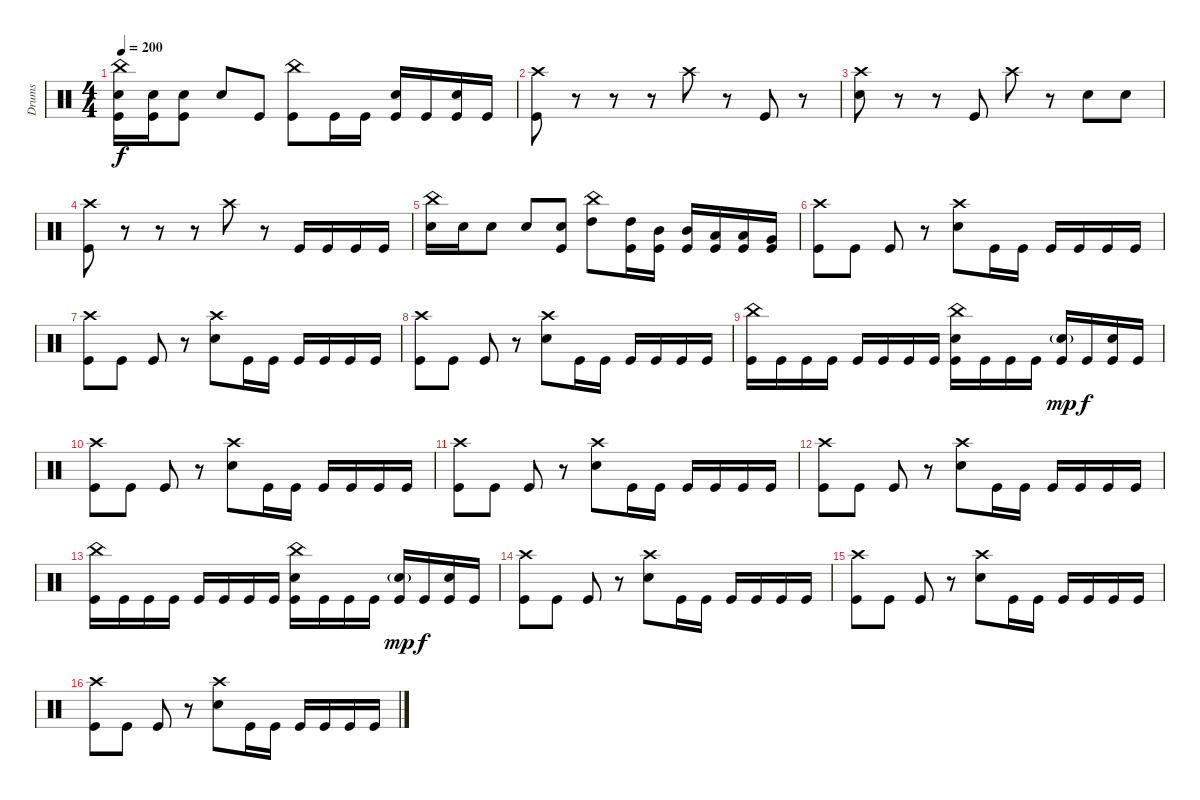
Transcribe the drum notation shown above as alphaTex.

\track ("Drums" "Drums") {instrument percussion}
\staff {score}
\articulation defaults
\ts (4 4)
\tempo 200
\clef neutral
\ks c
("China (hit)" "Snare (hit) 2" "Kick (hit)").16{dy f} ("Snare (hit) 2" "Kick (hit)").16 ("Snare (hit) 2" "Kick (hit)").8 "Snare (hit) 2".8 "Kick (hit)".8 ("China (hit)" "Kick (hit)").8 "Kick (hit)".16 "Kick (hit)".16 ("Snare (hit) 2" "Kick (hit)").16 "Kick (hit)".16 ("Snare (hit) 2" "Kick (hit)").16 "Kick (hit)".16 |
("Crash high (hit)" "Kick (hit)").8 r.8 r.8 r.8 "Crash high (hit)".8 r.8 "Kick (hit)".8 r.8 |
("Crash high (hit)" "Snare (hit) 2").8 r.8 r.8 "Kick (hit)".8 "Crash high (hit)".8 r.8 "Snare (hit) 2".8 "Snare (hit) 2".8 |
("Crash high (hit)" "Kick (hit)").8 r.8 r.8 r.8 "Crash high (hit)".8 r.8 "Kick (hit)".16 "Kick (hit)".16 "Kick (hit)".16 "Kick (hit)".16 |
("China (hit)" "Snare (hit) 2").16 "Snare (hit) 2".16 "Snare (hit) 2".8 "Snare (hit) 2".8 ("Snare (hit) 2" "Kick (hit)").8 ("China (hit)" "High Tom (hit)").8 ("High Tom (hit)" "Kick (hit)").16 ("Mid Tom (hit)" "Kick (hit)").16 ("Mid Tom (hit)" "Kick (hit)").16 ("Low Tom (hit)" "Kick (hit)").16 ("Low Tom (hit)" "Kick (hit)").16 ("Very Low Tom (hit)" "Kick (hit)").16 |
("Crash high (hit)" "Kick (hit)").8 "Kick (hit)".8 "Kick (hit)".8 r.8 ("Crash high (hit)" "Snare (hit) 2").8 "Kick (hit)".16 "Kick (hit)".16 "Kick (hit)".16 "Kick (hit)".16 "Kick (hit)".16 "Kick (hit)".16 |
("Crash high (hit)" "Kick (hit)").8 "Kick (hit)".8 "Kick (hit)".8 r.8 ("Crash high (hit)" "Snare (hit) 2").8 "Kick (hit)".16 "Kick (hit)".16 "Kick (hit)".16 "Kick (hit)".16 "Kick (hit)".16 "Kick (hit)".16 |
("Crash high (hit)" "Kick (hit)").8 "Kick (hit)".8 "Kick (hit)".8 r.8 ("Crash high (hit)" "Snare (hit) 2").8 "Kick (hit)".16 "Kick (hit)".16 "Kick (hit)".16 "Kick (hit)".16 "Kick (hit)".16 "Kick (hit)".16 |
("China (hit)" "Kick (hit)").16 "Kick (hit)".16 "Kick (hit)".16 "Kick (hit)".16 "Kick (hit)".16 "Kick (hit)".16 "Kick (hit)".16 "Kick (hit)".16 ("China (hit)" "Snare (hit) 2" "Kick (hit)").16 "Kick (hit)".16 "Kick (hit)".16 "Kick (hit)".16 ("Snare (hit) 2"{g} "Kick (hit)").16{dy mp} "Kick (hit)".16{dy f} ("Snare (hit) 2" "Kick (hit)").16 "Kick (hit)".16 |
("Crash high (hit)" "Kick (hit)").8 "Kick (hit)".8 "Kick (hit)".8 r.8 ("Crash high (hit)" "Snare (hit) 2").8 "Kick (hit)".16 "Kick (hit)".16 "Kick (hit)".16 "Kick (hit)".16 "Kick (hit)".16 "Kick (hit)".16 |
("Crash high (hit)" "Kick (hit)").8 "Kick (hit)".8 "Kick (hit)".8 r.8 ("Crash high (hit)" "Snare (hit) 2").8 "Kick (hit)".16 "Kick (hit)".16 "Kick (hit)".16 "Kick (hit)".16 "Kick (hit)".16 "Kick (hit)".16 |
("Crash high (hit)" "Kick (hit)").8 "Kick (hit)".8 "Kick (hit)".8 r.8 ("Crash high (hit)" "Snare (hit) 2").8 "Kick (hit)".16 "Kick (hit)".16 "Kick (hit)".16 "Kick (hit)".16 "Kick (hit)".16 "Kick (hit)".16 |
("China (hit)" "Kick (hit)").16 "Kick (hit)".16 "Kick (hit)".16 "Kick (hit)".16 "Kick (hit)".16 "Kick (hit)".16 "Kick (hit)".16 "Kick (hit)".16 ("China (hit)" "Snare (hit) 2" "Kick (hit)").16 "Kick (hit)".16 "Kick (hit)".16 "Kick (hit)".16 ("Snare (hit) 2"{g} "Kick (hit)").16{dy mp} "Kick (hit)".16{dy f} ("Snare (hit) 2" "Kick (hit)").16 "Kick (hit)".16 |
("Crash high (hit)" "Kick (hit)").8 "Kick (hit)".8 "Kick (hit)".8 r.8 ("Crash high (hit)" "Snare (hit) 2").8 "Kick (hit)".16 "Kick (hit)".16 "Kick (hit)".16 "Kick (hit)".16 "Kick (hit)".16 "Kick (hit)".16 |
("Crash high (hit)" "Kick (hit)").8 "Kick (hit)".8 "Kick (hit)".8 r.8 ("Crash high (hit)" "Snare (hit) 2").8 "Kick (hit)".16 "Kick (hit)".16 "Kick (hit)".16 "Kick (hit)".16 "Kick (hit)".16 "Kick (hit)".16 |
("Crash high (hit)" "Kick (hit)").8 "Kick (hit)".8 "Kick (hit)".8 r.8 ("Crash high (hit)" "Snare (hit) 2").8 "Kick (hit)".16 "Kick (hit)".16 "Kick (hit)".16 "Kick (hit)".16 "Kick (hit)".16 "Kick (hit)".16
